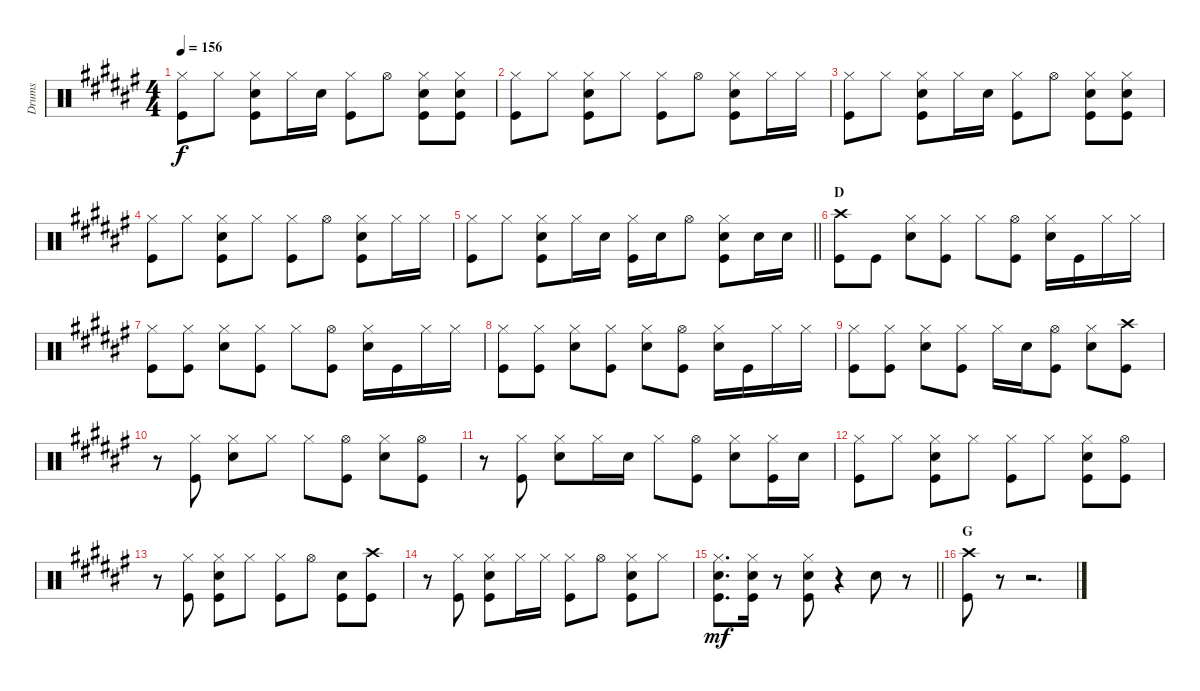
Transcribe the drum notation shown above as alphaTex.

\track ("Drums" "Drums") {instrument percussion}
\staff {score}
\articulation defaults
\ts (4 4)
\tempo 156
\clef neutral
\ks f#
("Hi-Hat (closed)" "Kick (hit)").8{dy f} "Hi-Hat (closed)".8 ("Hi-Hat (closed)" "Snare (hit) 2" "Kick (hit)").8 "Hi-Hat (closed)".16 "Snare (hit) 2".16 ("Hi-Hat (closed)" "Kick (hit)").8 "Hi-Hat (open)".8 ("Hi-Hat (closed)" "Snare (hit) 2" "Kick (hit)").8 ("Hi-Hat (closed)" "Snare (hit) 2" "Kick (hit)").8 |
("Hi-Hat (closed)" "Kick (hit)").8 "Hi-Hat (closed)".8 ("Hi-Hat (closed)" "Snare (hit) 2" "Kick (hit)").8 "Hi-Hat (closed)".8 ("Hi-Hat (closed)" "Kick (hit)").8 "Hi-Hat (open)".8 ("Hi-Hat (closed)" "Snare (hit) 2" "Kick (hit)").8 "Hi-Hat (closed)".16 "Hi-Hat (closed)".16 |
("Hi-Hat (closed)" "Kick (hit)").8 "Hi-Hat (closed)".8 ("Hi-Hat (closed)" "Snare (hit) 2" "Kick (hit)").8 "Hi-Hat (closed)".16 "Snare (hit) 2".16 ("Hi-Hat (closed)" "Kick (hit)").8 "Hi-Hat (open)".8 ("Hi-Hat (closed)" "Snare (hit) 2" "Kick (hit)").8 ("Hi-Hat (closed)" "Snare (hit) 2" "Kick (hit)").8 |
("Hi-Hat (closed)" "Kick (hit)").8 "Hi-Hat (closed)".8 ("Hi-Hat (closed)" "Snare (hit) 2" "Kick (hit)").8 "Hi-Hat (closed)".8 ("Hi-Hat (closed)" "Kick (hit)").8 "Hi-Hat (open)".8 ("Hi-Hat (closed)" "Snare (hit) 2" "Kick (hit)").8 "Hi-Hat (closed)".16 "Hi-Hat (closed)".16 |
\barLineRight lightlight
("Hi-Hat (closed)" "Kick (hit)").8 "Hi-Hat (closed)".8 ("Hi-Hat (closed)" "Snare (hit) 2" "Kick (hit)").8 "Hi-Hat (closed)".16 "Snare (hit) 2".16 ("Hi-Hat (closed)" "Kick (hit)").16 "Snare (hit) 2".16 "Hi-Hat (open)".8 ("Hi-Hat (closed)" "Snare (hit) 2" "Kick (hit)").8 "Snare (hit) 2".16 "Snare (hit) 2".16 |
\section ("" "D")
("Crash high (hit)" "Kick (hit)").8 "Kick (hit)".8 ("Hi-Hat (closed)" "Snare (hit) 2").8 ("Hi-Hat (closed)" "Kick (hit)").8 "Hi-Hat (closed)".8 ("Hi-Hat (open)" "Kick (hit)").8 ("Hi-Hat (closed)" "Snare (hit) 2").16 "Kick (hit)".16 "Hi-Hat (closed)".16 "Hi-Hat (closed)".16 |
("Hi-Hat (closed)" "Kick (hit)").8 ("Hi-Hat (closed)" "Kick (hit)").8 ("Hi-Hat (closed)" "Snare (hit) 2").8 ("Hi-Hat (closed)" "Kick (hit)").8 "Hi-Hat (closed)".8 ("Hi-Hat (open)" "Kick (hit)").8 ("Hi-Hat (closed)" "Snare (hit) 2").16 "Kick (hit)".16 "Hi-Hat (closed)".16 "Hi-Hat (closed)".16 |
("Hi-Hat (closed)" "Kick (hit)").8 ("Hi-Hat (closed)" "Kick (hit)").8 ("Hi-Hat (closed)" "Snare (hit) 2").8 ("Hi-Hat (closed)" "Kick (hit)").8 ("Hi-Hat (closed)" "Snare (hit) 2").8 ("Hi-Hat (open)" "Kick (hit)").8 ("Hi-Hat (closed)" "Snare (hit) 2").16 "Kick (hit)".16 "Hi-Hat (closed)".16 "Hi-Hat (closed)".16 |
("Hi-Hat (closed)" "Kick (hit)").8 ("Hi-Hat (closed)" "Kick (hit)").8 ("Hi-Hat (closed)" "Snare (hit) 2").8 ("Hi-Hat (closed)" "Kick (hit)").8 "Hi-Hat (closed)".16 "Snare (hit) 2".16 ("Hi-Hat (open)" "Kick (hit)").8 ("Hi-Hat (closed)" "Snare (hit) 2").8 ("Crash high (hit)" "Kick (hit)").8 |
r.8 ("Hi-Hat (closed)" "Kick (hit)").8 ("Hi-Hat (closed)" "Snare (hit) 2").8 "Hi-Hat (closed)".8 "Hi-Hat (closed)".8 ("Hi-Hat (open)" "Kick (hit)").8 ("Hi-Hat (closed)" "Snare (hit) 2").8 ("Hi-Hat (open)" "Kick (hit)").8 |
r.8 ("Hi-Hat (closed)" "Kick (hit)").8 ("Hi-Hat (closed)" "Snare (hit) 2").8 "Hi-Hat (closed)".16 "Snare (hit) 2".16 "Hi-Hat (closed)".8 ("Hi-Hat (open)" "Kick (hit)").8 ("Hi-Hat (closed)" "Snare (hit) 2").8 ("Hi-Hat (closed)" "Kick (hit)").16 "Snare (hit) 2".16 |
("Hi-Hat (closed)" "Kick (hit)").8 "Hi-Hat (closed)".8 ("Hi-Hat (closed)" "Snare (hit) 2" "Kick (hit)").8 "Hi-Hat (closed)".8 ("Hi-Hat (closed)" "Kick (hit)").8 "Hi-Hat (closed)".8 ("Hi-Hat (closed)" "Snare (hit) 2" "Kick (hit)").8 ("Hi-Hat (open)" "Kick (hit)").8 |
r.8 ("Hi-Hat (closed)" "Kick (hit)").8 ("Hi-Hat (closed)" "Snare (hit) 2" "Kick (hit)").8 "Hi-Hat (closed)".8 ("Hi-Hat (closed)" "Kick (hit)").8 "Hi-Hat (open)".8 ("Snare (hit) 2" "Kick (hit)").8 ("Crash high (hit)" "Kick (hit)").8 |
r.8 ("Hi-Hat (closed)" "Kick (hit)").8 ("Hi-Hat (closed)" "Snare (hit) 2" "Kick (hit)").8 "Hi-Hat (closed)".16 "Hi-Hat (closed)".16 ("Hi-Hat (closed)" "Kick (hit)").8 "Hi-Hat (open)".8 ("Hi-Hat (closed)" "Snare (hit) 2" "Kick (hit)").8 "Hi-Hat (closed)".8 |
\barLineRight lightlight
("Hi-Hat (closed)" "Snare (hit) 2" "Kick (hit)").8{d dy mf} ("Hi-Hat (closed)" "Snare (hit) 2" "Kick (hit)").16 r.8 ("Hi-Hat (closed)" "Snare (hit) 2" "Kick (hit)").8 r.4 "Snare (hit) 2".8 r.8 |
\section ("" "G")
("Crash high (hit)" "Kick (hit)").8 r.8 r.2{d}
